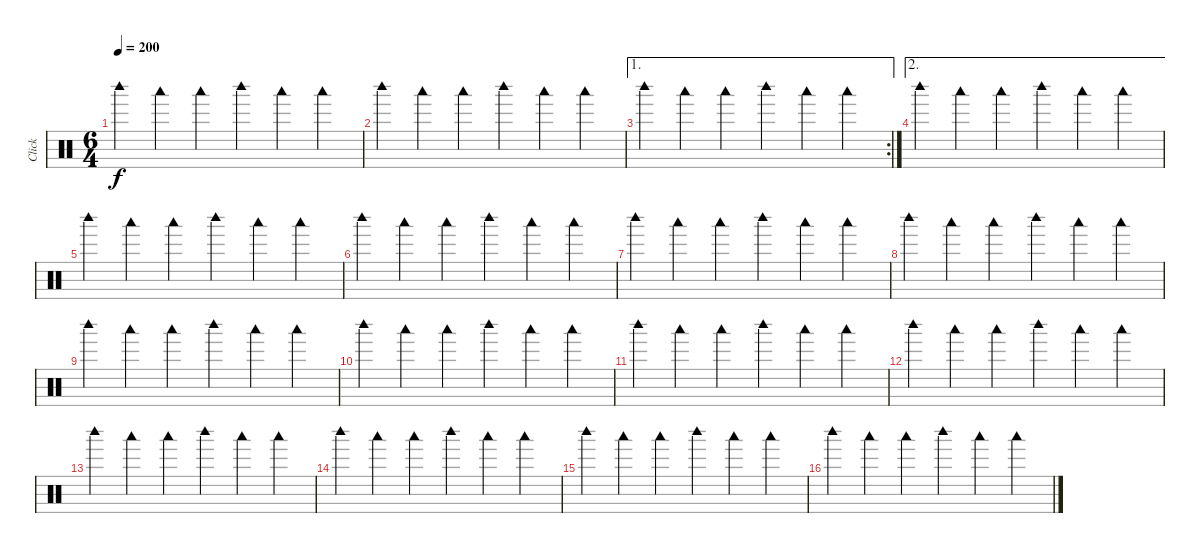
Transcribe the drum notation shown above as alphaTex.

\track ("Click" "Click") {mute instrument percussion}
\staff {score}
\articulation defaults
\ts (6 4)
\tempo 200
\clef neutral
\ks c "Woodblock high (hit)".4{dy f} "Woodblock low (hit)".4 "Woodblock low (hit)".4 "Woodblock high (hit)".4 "Woodblock low (hit)".4 "Woodblock low (hit)".4
|
"Woodblock high (hit)".4 "Woodblock low (hit)".4 "Woodblock low (hit)".4 "Woodblock high (hit)".4 "Woodblock low (hit)".4 "Woodblock low (hit)".4 |
\ae 1
\rc 2 "Woodblock high (hit)".4 "Woodblock low (hit)".4 "Woodblock low (hit)".4 "Woodblock high (hit)".4 "Woodblock low (hit)".4 "Woodblock low (hit)".4
|
\ae 2 "Woodblock high (hit)".4 "Woodblock low (hit)".4 "Woodblock low (hit)".4 "Woodblock high (hit)".4 "Woodblock low (hit)".4 "Woodblock low (hit)".4
|
"Woodblock high (hit)".4 "Woodblock low (hit)".4 "Woodblock low (hit)".4 "Woodblock high (hit)".4 "Woodblock low (hit)".4 "Woodblock low (hit)".4 |
"Woodblock high (hit)".4 "Woodblock low (hit)".4 "Woodblock low (hit)".4 "Woodblock high (hit)".4 "Woodblock low (hit)".4 "Woodblock low (hit)".4 |
"Woodblock high (hit)".4 "Woodblock low (hit)".4 "Woodblock low (hit)".4 "Woodblock high (hit)".4 "Woodblock low (hit)".4 "Woodblock low (hit)".4 |
"Woodblock high (hit)".4 "Woodblock low (hit)".4 "Woodblock low (hit)".4 "Woodblock high (hit)".4 "Woodblock low (hit)".4 "Woodblock low (hit)".4 |
"Woodblock high (hit)".4 "Woodblock low (hit)".4 "Woodblock low (hit)".4 "Woodblock high (hit)".4 "Woodblock low (hit)".4 "Woodblock low (hit)".4 |
"Woodblock high (hit)".4 "Woodblock low (hit)".4 "Woodblock low (hit)".4 "Woodblock high (hit)".4 "Woodblock low (hit)".4 "Woodblock low (hit)".4 |
"Woodblock high (hit)".4 "Woodblock low (hit)".4 "Woodblock low (hit)".4 "Woodblock high (hit)".4 "Woodblock low (hit)".4 "Woodblock low (hit)".4 |
"Woodblock high (hit)".4 "Woodblock low (hit)".4 "Woodblock low (hit)".4 "Woodblock high (hit)".4 "Woodblock low (hit)".4 "Woodblock low (hit)".4 |
"Woodblock high (hit)".4 "Woodblock low (hit)".4 "Woodblock low (hit)".4 "Woodblock high (hit)".4 "Woodblock low (hit)".4 "Woodblock low (hit)".4 |
"Woodblock high (hit)".4 "Woodblock low (hit)".4 "Woodblock low (hit)".4 "Woodblock high (hit)".4 "Woodblock low (hit)".4 "Woodblock low (hit)".4 |
"Woodblock high (hit)".4 "Woodblock low (hit)".4 "Woodblock low (hit)".4 "Woodblock high (hit)".4 "Woodblock low (hit)".4 "Woodblock low (hit)".4 |
"Woodblock high (hit)".4 "Woodblock low (hit)".4 "Woodblock low (hit)".4 "Woodblock high (hit)".4 "Woodblock low (hit)".4 "Woodblock low (hit)".4
